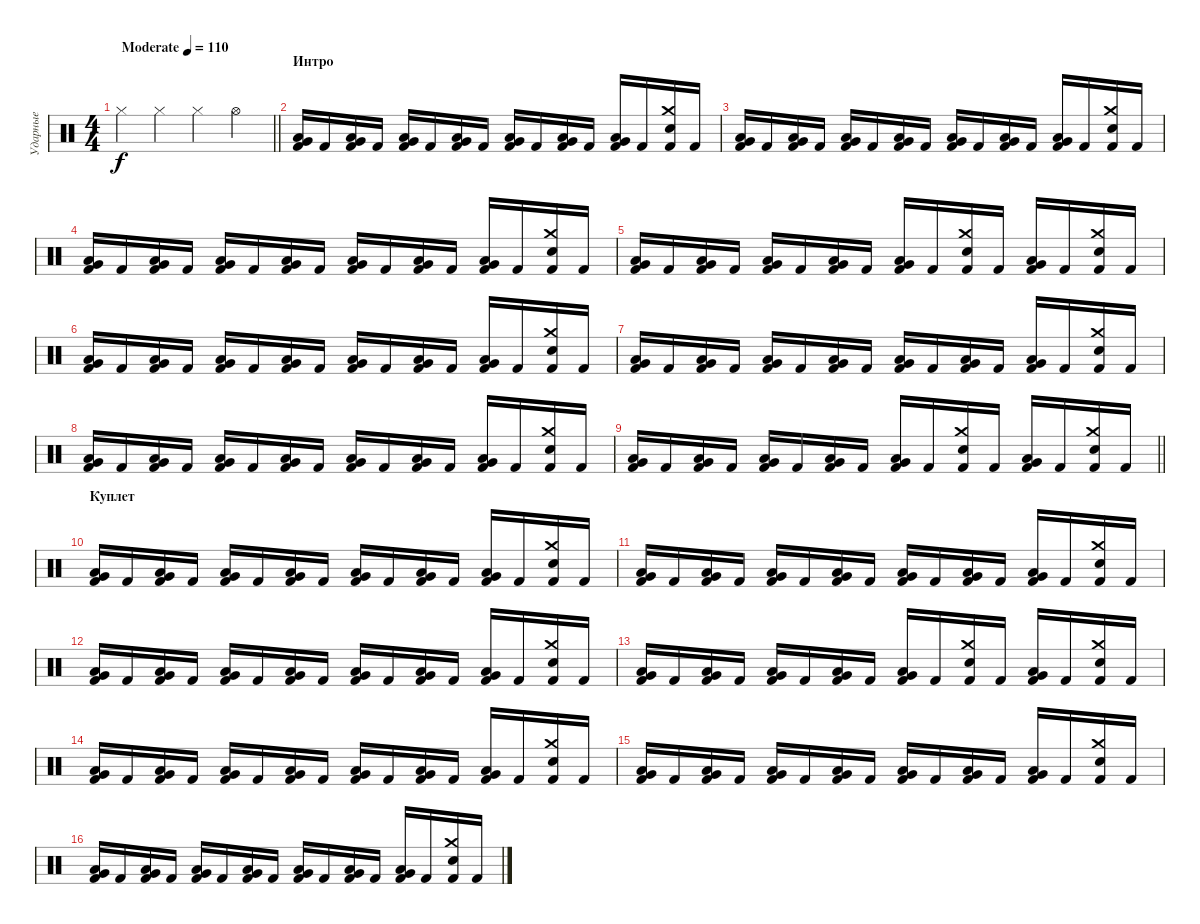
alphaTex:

\track ("Ударные" "Ударные") {instrument percussion}
\staff {score}
\articulation defaults
\ts (4 4)
\tempo (110 "Moderate")
\clef neutral
\barLineRight lightlight
\ks c "Hi-Hat (closed)".4{dy f} "Hi-Hat (closed)".4 "Hi-Hat (closed)".4 "Hi-Hat (open)".4
|
\section ("" "Интро")
("Low Floor Tom (hit)" "Very Low Tom (hit)" "Kick (hit) 2").16 "Kick (hit) 2".16 ("Low Floor Tom (hit)" "Very Low Tom (hit)" "Kick (hit) 2").16 "Kick (hit) 2".16 ("Low Floor Tom (hit)" "Very Low Tom (hit)" "Kick (hit) 2").16 "Kick (hit) 2".16 ("Low Floor Tom (hit)" "Very Low Tom (hit)" "Kick (hit) 2").16 "Kick (hit) 2".16 ("Low Floor Tom (hit)" "Very Low Tom (hit)" "Kick (hit) 2").16 "Kick (hit) 2".16 ("Low Floor Tom (hit)" "Very Low Tom (hit)" "Kick (hit) 2").16 "Kick (hit) 2".16 ("Low Floor Tom (hit)" "Very Low Tom (hit)" "Kick (hit) 2").16 "Kick (hit) 2".16 ("Crash medium (hit)" "Snare (hit) 2" "Kick (hit) 2").16 "Kick (hit) 2".16 |
("Low Floor Tom (hit)" "Very Low Tom (hit)" "Kick (hit) 2").16 "Kick (hit) 2".16 ("Low Floor Tom (hit)" "Very Low Tom (hit)" "Kick (hit) 2").16 "Kick (hit) 2".16 ("Low Floor Tom (hit)" "Very Low Tom (hit)" "Kick (hit) 2").16 "Kick (hit) 2".16 ("Low Floor Tom (hit)" "Very Low Tom (hit)" "Kick (hit) 2").16 "Kick (hit) 2".16 ("Low Floor Tom (hit)" "Very Low Tom (hit)" "Kick (hit) 2").16 "Kick (hit) 2".16 ("Low Floor Tom (hit)" "Very Low Tom (hit)" "Kick (hit) 2").16 "Kick (hit) 2".16 ("Low Floor Tom (hit)" "Very Low Tom (hit)" "Kick (hit) 2").16 "Kick (hit) 2".16 ("Crash medium (hit)" "Snare (hit) 2" "Kick (hit) 2").16 "Kick (hit) 2".16 |
("Low Floor Tom (hit)" "Very Low Tom (hit)" "Kick (hit) 2").16 "Kick (hit) 2".16 ("Low Floor Tom (hit)" "Very Low Tom (hit)" "Kick (hit) 2").16 "Kick (hit) 2".16 ("Low Floor Tom (hit)" "Very Low Tom (hit)" "Kick (hit) 2").16 "Kick (hit) 2".16 ("Low Floor Tom (hit)" "Very Low Tom (hit)" "Kick (hit) 2").16 "Kick (hit) 2".16 ("Low Floor Tom (hit)" "Very Low Tom (hit)" "Kick (hit) 2").16 "Kick (hit) 2".16 ("Low Floor Tom (hit)" "Very Low Tom (hit)" "Kick (hit) 2").16 "Kick (hit) 2".16 ("Low Floor Tom (hit)" "Very Low Tom (hit)" "Kick (hit) 2").16 "Kick (hit) 2".16 ("Crash medium (hit)" "Snare (hit) 2" "Kick (hit) 2").16 "Kick (hit) 2".16 |
("Low Floor Tom (hit)" "Very Low Tom (hit)" "Kick (hit) 2").16 "Kick (hit) 2".16 ("Low Floor Tom (hit)" "Very Low Tom (hit)" "Kick (hit) 2").16 "Kick (hit) 2".16 ("Low Floor Tom (hit)" "Very Low Tom (hit)" "Kick (hit) 2").16 "Kick (hit) 2".16 ("Low Floor Tom (hit)" "Very Low Tom (hit)" "Kick (hit) 2").16 "Kick (hit) 2".16 ("Low Floor Tom (hit)" "Very Low Tom (hit)" "Kick (hit) 2").16 "Kick (hit) 2".16 ("Crash medium (hit)" "Snare (hit) 2" "Kick (hit) 2").16 "Kick (hit) 2".16 ("Low Floor Tom (hit)" "Very Low Tom (hit)" "Kick (hit) 2").16 "Kick (hit) 2".16 ("Crash medium (hit)" "Snare (hit) 2" "Kick (hit) 2").16 "Kick (hit) 2".16 |
("Low Floor Tom (hit)" "Very Low Tom (hit)" "Kick (hit) 2").16 "Kick (hit) 2".16 ("Low Floor Tom (hit)" "Very Low Tom (hit)" "Kick (hit) 2").16 "Kick (hit) 2".16 ("Low Floor Tom (hit)" "Very Low Tom (hit)" "Kick (hit) 2").16 "Kick (hit) 2".16 ("Low Floor Tom (hit)" "Very Low Tom (hit)" "Kick (hit) 2").16 "Kick (hit) 2".16 ("Low Floor Tom (hit)" "Very Low Tom (hit)" "Kick (hit) 2").16 "Kick (hit) 2".16 ("Low Floor Tom (hit)" "Very Low Tom (hit)" "Kick (hit) 2").16 "Kick (hit) 2".16 ("Low Floor Tom (hit)" "Very Low Tom (hit)" "Kick (hit) 2").16 "Kick (hit) 2".16 ("Crash medium (hit)" "Snare (hit) 2" "Kick (hit) 2").16 "Kick (hit) 2".16 |
("Low Floor Tom (hit)" "Very Low Tom (hit)" "Kick (hit) 2").16 "Kick (hit) 2".16 ("Low Floor Tom (hit)" "Very Low Tom (hit)" "Kick (hit) 2").16 "Kick (hit) 2".16 ("Low Floor Tom (hit)" "Very Low Tom (hit)" "Kick (hit) 2").16 "Kick (hit) 2".16 ("Low Floor Tom (hit)" "Very Low Tom (hit)" "Kick (hit) 2").16 "Kick (hit) 2".16 ("Low Floor Tom (hit)" "Very Low Tom (hit)" "Kick (hit) 2").16 "Kick (hit) 2".16 ("Low Floor Tom (hit)" "Very Low Tom (hit)" "Kick (hit) 2").16 "Kick (hit) 2".16 ("Low Floor Tom (hit)" "Very Low Tom (hit)" "Kick (hit) 2").16 "Kick (hit) 2".16 ("Crash medium (hit)" "Snare (hit) 2" "Kick (hit) 2").16 "Kick (hit) 2".16 |
("Low Floor Tom (hit)" "Very Low Tom (hit)" "Kick (hit) 2").16 "Kick (hit) 2".16 ("Low Floor Tom (hit)" "Very Low Tom (hit)" "Kick (hit) 2").16 "Kick (hit) 2".16 ("Low Floor Tom (hit)" "Very Low Tom (hit)" "Kick (hit) 2").16 "Kick (hit) 2".16 ("Low Floor Tom (hit)" "Very Low Tom (hit)" "Kick (hit) 2").16 "Kick (hit) 2".16 ("Low Floor Tom (hit)" "Very Low Tom (hit)" "Kick (hit) 2").16 "Kick (hit) 2".16 ("Low Floor Tom (hit)" "Very Low Tom (hit)" "Kick (hit) 2").16 "Kick (hit) 2".16 ("Low Floor Tom (hit)" "Very Low Tom (hit)" "Kick (hit) 2").16 "Kick (hit) 2".16 ("Crash medium (hit)" "Snare (hit) 2" "Kick (hit) 2").16 "Kick (hit) 2".16 |
\barLineRight lightlight
("Low Floor Tom (hit)" "Very Low Tom (hit)" "Kick (hit) 2").16 "Kick (hit) 2".16 ("Low Floor Tom (hit)" "Very Low Tom (hit)" "Kick (hit) 2").16 "Kick (hit) 2".16 ("Low Floor Tom (hit)" "Very Low Tom (hit)" "Kick (hit) 2").16 "Kick (hit) 2".16 ("Low Floor Tom (hit)" "Very Low Tom (hit)" "Kick (hit) 2").16 "Kick (hit) 2".16 ("Low Floor Tom (hit)" "Very Low Tom (hit)" "Kick (hit) 2").16 "Kick (hit) 2".16 ("Crash medium (hit)" "Snare (hit) 2" "Kick (hit) 2").16 "Kick (hit) 2".16 ("Low Floor Tom (hit)" "Very Low Tom (hit)" "Kick (hit) 2").16 "Kick (hit) 2".16 ("Crash medium (hit)" "Snare (hit) 2" "Kick (hit) 2").16 "Kick (hit) 2".16 |
\section ("" "Куплет")
("Low Floor Tom (hit)" "Very Low Tom (hit)" "Kick (hit) 2").16 "Kick (hit) 2".16 ("Low Floor Tom (hit)" "Very Low Tom (hit)" "Kick (hit) 2").16 "Kick (hit) 2".16 ("Low Floor Tom (hit)" "Very Low Tom (hit)" "Kick (hit) 2").16 "Kick (hit) 2".16 ("Low Floor Tom (hit)" "Very Low Tom (hit)" "Kick (hit) 2").16 "Kick (hit) 2".16 ("Low Floor Tom (hit)" "Very Low Tom (hit)" "Kick (hit) 2").16 "Kick (hit) 2".16 ("Low Floor Tom (hit)" "Very Low Tom (hit)" "Kick (hit) 2").16 "Kick (hit) 2".16 ("Low Floor Tom (hit)" "Very Low Tom (hit)" "Kick (hit) 2").16 "Kick (hit) 2".16 ("Crash medium (hit)" "Snare (hit) 2" "Kick (hit) 2").16 "Kick (hit) 2".16 |
("Low Floor Tom (hit)" "Very Low Tom (hit)" "Kick (hit) 2").16 "Kick (hit) 2".16 ("Low Floor Tom (hit)" "Very Low Tom (hit)" "Kick (hit) 2").16 "Kick (hit) 2".16 ("Low Floor Tom (hit)" "Very Low Tom (hit)" "Kick (hit) 2").16 "Kick (hit) 2".16 ("Low Floor Tom (hit)" "Very Low Tom (hit)" "Kick (hit) 2").16 "Kick (hit) 2".16 ("Low Floor Tom (hit)" "Very Low Tom (hit)" "Kick (hit) 2").16 "Kick (hit) 2".16 ("Low Floor Tom (hit)" "Very Low Tom (hit)" "Kick (hit) 2").16 "Kick (hit) 2".16 ("Low Floor Tom (hit)" "Very Low Tom (hit)" "Kick (hit) 2").16 "Kick (hit) 2".16 ("Crash medium (hit)" "Snare (hit) 2" "Kick (hit) 2").16 "Kick (hit) 2".16 |
("Low Floor Tom (hit)" "Very Low Tom (hit)" "Kick (hit) 2").16 "Kick (hit) 2".16 ("Low Floor Tom (hit)" "Very Low Tom (hit)" "Kick (hit) 2").16 "Kick (hit) 2".16 ("Low Floor Tom (hit)" "Very Low Tom (hit)" "Kick (hit) 2").16 "Kick (hit) 2".16 ("Low Floor Tom (hit)" "Very Low Tom (hit)" "Kick (hit) 2").16 "Kick (hit) 2".16 ("Low Floor Tom (hit)" "Very Low Tom (hit)" "Kick (hit) 2").16 "Kick (hit) 2".16 ("Low Floor Tom (hit)" "Very Low Tom (hit)" "Kick (hit) 2").16 "Kick (hit) 2".16 ("Low Floor Tom (hit)" "Very Low Tom (hit)" "Kick (hit) 2").16 "Kick (hit) 2".16 ("Crash medium (hit)" "Snare (hit) 2" "Kick (hit) 2").16 "Kick (hit) 2".16 |
("Low Floor Tom (hit)" "Very Low Tom (hit)" "Kick (hit) 2").16 "Kick (hit) 2".16 ("Low Floor Tom (hit)" "Very Low Tom (hit)" "Kick (hit) 2").16 "Kick (hit) 2".16 ("Low Floor Tom (hit)" "Very Low Tom (hit)" "Kick (hit) 2").16 "Kick (hit) 2".16 ("Low Floor Tom (hit)" "Very Low Tom (hit)" "Kick (hit) 2").16 "Kick (hit) 2".16 ("Low Floor Tom (hit)" "Very Low Tom (hit)" "Kick (hit) 2").16 "Kick (hit) 2".16 ("Crash medium (hit)" "Snare (hit) 2" "Kick (hit) 2").16 "Kick (hit) 2".16 ("Low Floor Tom (hit)" "Very Low Tom (hit)" "Kick (hit) 2").16 "Kick (hit) 2".16 ("Crash medium (hit)" "Snare (hit) 2" "Kick (hit) 2").16 "Kick (hit) 2".16 |
("Low Floor Tom (hit)" "Very Low Tom (hit)" "Kick (hit) 2").16 "Kick (hit) 2".16 ("Low Floor Tom (hit)" "Very Low Tom (hit)" "Kick (hit) 2").16 "Kick (hit) 2".16 ("Low Floor Tom (hit)" "Very Low Tom (hit)" "Kick (hit) 2").16 "Kick (hit) 2".16 ("Low Floor Tom (hit)" "Very Low Tom (hit)" "Kick (hit) 2").16 "Kick (hit) 2".16 ("Low Floor Tom (hit)" "Very Low Tom (hit)" "Kick (hit) 2").16 "Kick (hit) 2".16 ("Low Floor Tom (hit)" "Very Low Tom (hit)" "Kick (hit) 2").16 "Kick (hit) 2".16 ("Low Floor Tom (hit)" "Very Low Tom (hit)" "Kick (hit) 2").16 "Kick (hit) 2".16 ("Crash medium (hit)" "Snare (hit) 2" "Kick (hit) 2").16 "Kick (hit) 2".16 |
("Low Floor Tom (hit)" "Very Low Tom (hit)" "Kick (hit) 2").16 "Kick (hit) 2".16 ("Low Floor Tom (hit)" "Very Low Tom (hit)" "Kick (hit) 2").16 "Kick (hit) 2".16 ("Low Floor Tom (hit)" "Very Low Tom (hit)" "Kick (hit) 2").16 "Kick (hit) 2".16 ("Low Floor Tom (hit)" "Very Low Tom (hit)" "Kick (hit) 2").16 "Kick (hit) 2".16 ("Low Floor Tom (hit)" "Very Low Tom (hit)" "Kick (hit) 2").16 "Kick (hit) 2".16 ("Low Floor Tom (hit)" "Very Low Tom (hit)" "Kick (hit) 2").16 "Kick (hit) 2".16 ("Low Floor Tom (hit)" "Very Low Tom (hit)" "Kick (hit) 2").16 "Kick (hit) 2".16 ("Crash medium (hit)" "Snare (hit) 2" "Kick (hit) 2").16 "Kick (hit) 2".16 |
("Low Floor Tom (hit)" "Very Low Tom (hit)" "Kick (hit) 2").16 "Kick (hit) 2".16 ("Low Floor Tom (hit)" "Very Low Tom (hit)" "Kick (hit) 2").16 "Kick (hit) 2".16 ("Low Floor Tom (hit)" "Very Low Tom (hit)" "Kick (hit) 2").16 "Kick (hit) 2".16 ("Low Floor Tom (hit)" "Very Low Tom (hit)" "Kick (hit) 2").16 "Kick (hit) 2".16 ("Low Floor Tom (hit)" "Very Low Tom (hit)" "Kick (hit) 2").16 "Kick (hit) 2".16 ("Low Floor Tom (hit)" "Very Low Tom (hit)" "Kick (hit) 2").16 "Kick (hit) 2".16 ("Low Floor Tom (hit)" "Very Low Tom (hit)" "Kick (hit) 2").16 "Kick (hit) 2".16 ("Crash medium (hit)" "Snare (hit) 2" "Kick (hit) 2").16 "Kick (hit) 2".16
